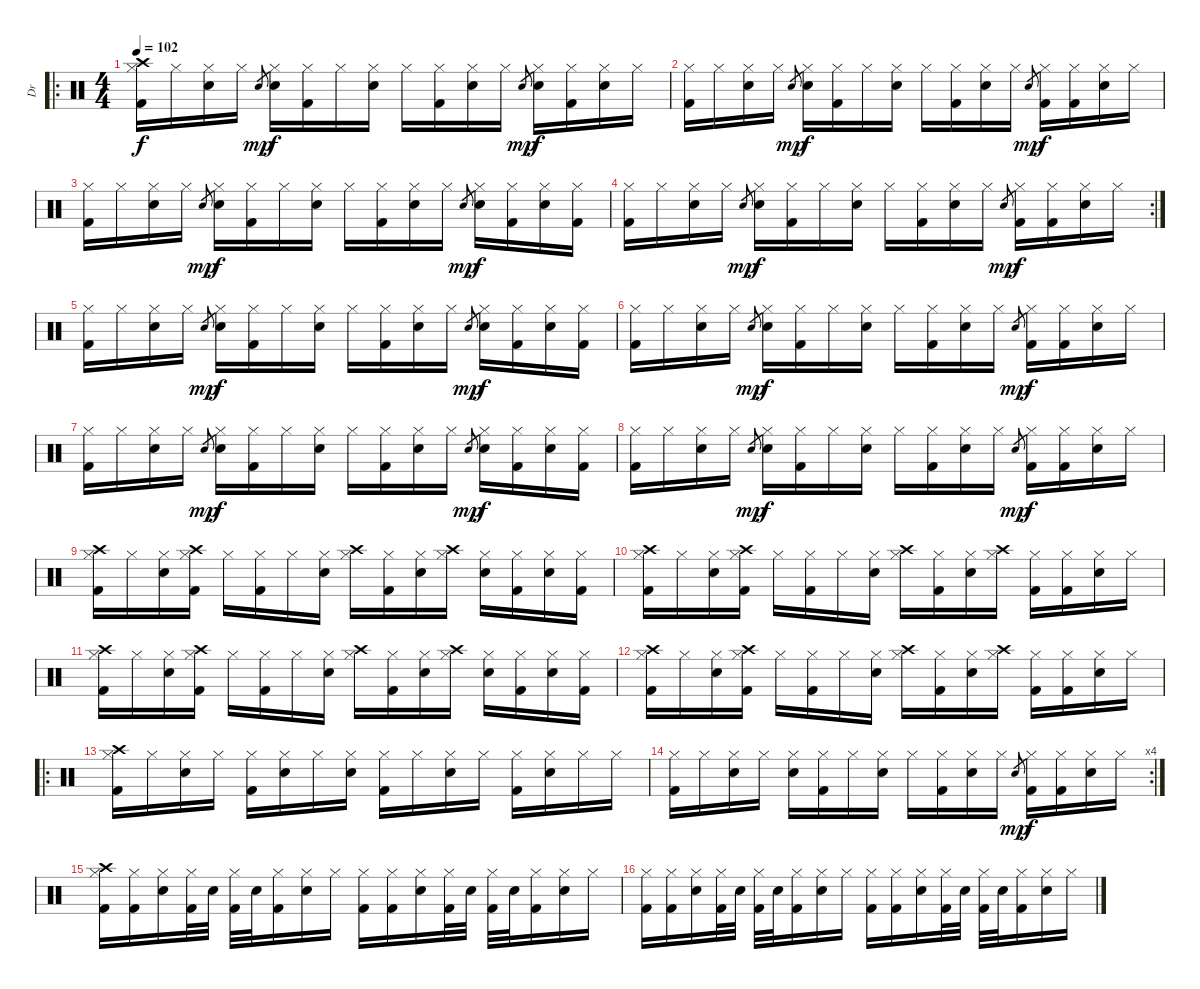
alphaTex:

\track ("Dr" "Dr") {instrument percussion}
\staff {score}
\articulation defaults
\ro
\ts (4 4)
\tempo 102
\clef neutral
\ks c
("Crash high (hit)" "Hi-Hat (closed)" "Kick (hit) 2").16{dy f} "Hi-Hat (closed)".16 ("Hi-Hat (closed)" "Electric Snare (hit)").16 "Hi-Hat (closed)".16 "Electric Snare (hit)".8{gr dy mp} ("Hi-Hat (closed)" "Electric Snare (hit)").16{dy f} ("Hi-Hat (closed)" "Kick (hit) 2").16 "Hi-Hat (closed)".16 ("Hi-Hat (closed)" "Electric Snare (hit)").16 "Hi-Hat (closed)".16 ("Hi-Hat (closed)" "Kick (hit) 2").16 ("Hi-Hat (closed)" "Electric Snare (hit)").16 "Hi-Hat (closed)".16 "Electric Snare (hit)".8{gr dy mp} ("Hi-Hat (closed)" "Electric Snare (hit)").16{dy f} ("Hi-Hat (closed)" "Kick (hit) 2").16 ("Hi-Hat (closed)" "Electric Snare (hit)").16 "Hi-Hat (closed)".16 |
("Hi-Hat (closed)" "Kick (hit) 2").16 "Hi-Hat (closed)".16 ("Hi-Hat (closed)" "Electric Snare (hit)").16 "Hi-Hat (closed)".16 "Electric Snare (hit)".8{gr dy mp} ("Hi-Hat (closed)" "Electric Snare (hit)").16{dy f} ("Hi-Hat (closed)" "Kick (hit) 2").16 "Hi-Hat (closed)".16 ("Hi-Hat (closed)" "Electric Snare (hit)").16 "Hi-Hat (closed)".16 ("Hi-Hat (closed)" "Kick (hit) 2").16 ("Hi-Hat (closed)" "Electric Snare (hit)").16 "Hi-Hat (closed)".16 "Electric Snare (hit)".8{gr dy mp} ("Hi-Hat (closed)" "Kick (hit) 2").16{dy f} ("Hi-Hat (closed)" "Kick (hit) 2").16 ("Hi-Hat (closed)" "Electric Snare (hit)").16 "Hi-Hat (closed)".16 |
("Hi-Hat (closed)" "Kick (hit) 2").16 "Hi-Hat (closed)".16 ("Hi-Hat (closed)" "Electric Snare (hit)").16 "Hi-Hat (closed)".16 "Electric Snare (hit)".8{gr dy mp} ("Hi-Hat (closed)" "Electric Snare (hit)").16{dy f} ("Hi-Hat (closed)" "Kick (hit) 2").16 "Hi-Hat (closed)".16 ("Hi-Hat (closed)" "Electric Snare (hit)").16 "Hi-Hat (closed)".16 ("Hi-Hat (closed)" "Kick (hit) 2").16 ("Hi-Hat (closed)" "Electric Snare (hit)").16 "Hi-Hat (closed)".16 "Electric Snare (hit)".8{gr dy mp} ("Hi-Hat (closed)" "Electric Snare (hit)").16{dy f} ("Hi-Hat (closed)" "Kick (hit) 2").16 ("Hi-Hat (closed)" "Electric Snare (hit)").16 ("Hi-Hat (closed)" "Kick (hit) 2").16 |
\rc 2
("Hi-Hat (closed)" "Kick (hit) 2").16 "Hi-Hat (closed)".16 ("Hi-Hat (closed)" "Electric Snare (hit)").16 "Hi-Hat (closed)".16 "Electric Snare (hit)".8{gr dy mp} ("Hi-Hat (closed)" "Electric Snare (hit)").16{dy f} ("Hi-Hat (closed)" "Kick (hit) 2").16 "Hi-Hat (closed)".16 ("Hi-Hat (closed)" "Electric Snare (hit)").16 "Hi-Hat (closed)".16 ("Hi-Hat (closed)" "Kick (hit) 2").16 ("Hi-Hat (closed)" "Electric Snare (hit)").16 "Hi-Hat (closed)".16 "Electric Snare (hit)".8{gr dy mp} ("Hi-Hat (closed)" "Kick (hit) 2").16{dy f} ("Hi-Hat (closed)" "Kick (hit) 2").16 ("Hi-Hat (closed)" "Electric Snare (hit)").16 "Hi-Hat (closed)".16 |
("Hi-Hat (closed)" "Kick (hit) 2").16 "Hi-Hat (closed)".16 ("Hi-Hat (closed)" "Electric Snare (hit)").16 "Hi-Hat (closed)".16 "Electric Snare (hit)".8{gr dy mp} ("Hi-Hat (closed)" "Electric Snare (hit)").16{dy f} ("Hi-Hat (closed)" "Kick (hit) 2").16 "Hi-Hat (closed)".16 ("Hi-Hat (closed)" "Electric Snare (hit)").16 "Hi-Hat (closed)".16 ("Hi-Hat (closed)" "Kick (hit) 2").16 ("Hi-Hat (closed)" "Electric Snare (hit)").16 "Hi-Hat (closed)".16 "Electric Snare (hit)".8{gr dy mp} ("Hi-Hat (closed)" "Electric Snare (hit)").16{dy f} ("Hi-Hat (closed)" "Kick (hit) 2").16 ("Hi-Hat (closed)" "Electric Snare (hit)").16 ("Hi-Hat (closed)" "Kick (hit) 2").16 |
("Hi-Hat (closed)" "Kick (hit) 2").16 "Hi-Hat (closed)".16 ("Hi-Hat (closed)" "Electric Snare (hit)").16 "Hi-Hat (closed)".16 "Electric Snare (hit)".8{gr dy mp} ("Hi-Hat (closed)" "Electric Snare (hit)").16{dy f} ("Hi-Hat (closed)" "Kick (hit) 2").16 "Hi-Hat (closed)".16 ("Hi-Hat (closed)" "Electric Snare (hit)").16 "Hi-Hat (closed)".16 ("Hi-Hat (closed)" "Kick (hit) 2").16 ("Hi-Hat (closed)" "Electric Snare (hit)").16 "Hi-Hat (closed)".16 "Electric Snare (hit)".8{gr dy mp} ("Hi-Hat (closed)" "Kick (hit) 2").16{dy f} ("Hi-Hat (closed)" "Kick (hit) 2").16 ("Hi-Hat (closed)" "Electric Snare (hit)").16 "Hi-Hat (closed)".16 |
("Hi-Hat (closed)" "Kick (hit) 2").16 "Hi-Hat (closed)".16 ("Hi-Hat (closed)" "Electric Snare (hit)").16 "Hi-Hat (closed)".16 "Electric Snare (hit)".8{gr dy mp} ("Hi-Hat (closed)" "Electric Snare (hit)").16{dy f} ("Hi-Hat (closed)" "Kick (hit) 2").16 "Hi-Hat (closed)".16 ("Hi-Hat (closed)" "Electric Snare (hit)").16 "Hi-Hat (closed)".16 ("Hi-Hat (closed)" "Kick (hit) 2").16 ("Hi-Hat (closed)" "Electric Snare (hit)").16 "Hi-Hat (closed)".16 "Electric Snare (hit)".8{gr dy mp} ("Hi-Hat (closed)" "Electric Snare (hit)").16{dy f} ("Hi-Hat (closed)" "Kick (hit) 2").16 ("Hi-Hat (closed)" "Electric Snare (hit)").16 ("Hi-Hat (closed)" "Kick (hit) 2").16 |
("Hi-Hat (closed)" "Kick (hit) 2").16 "Hi-Hat (closed)".16 ("Hi-Hat (closed)" "Electric Snare (hit)").16 "Hi-Hat (closed)".16 "Electric Snare (hit)".8{gr dy mp} ("Hi-Hat (closed)" "Electric Snare (hit)").16{dy f} ("Hi-Hat (closed)" "Kick (hit) 2").16 "Hi-Hat (closed)".16 ("Hi-Hat (closed)" "Electric Snare (hit)").16 "Hi-Hat (closed)".16 ("Hi-Hat (closed)" "Kick (hit) 2").16 ("Hi-Hat (closed)" "Electric Snare (hit)").16 "Hi-Hat (closed)".16 "Electric Snare (hit)".8{gr dy mp} ("Hi-Hat (closed)" "Kick (hit) 2").16{dy f} ("Hi-Hat (closed)" "Kick (hit) 2").16 ("Hi-Hat (closed)" "Electric Snare (hit)").16 "Hi-Hat (closed)".16 |
("Crash high (hit)" "Hi-Hat (closed)" "Kick (hit) 2").16 "Hi-Hat (closed)".16 ("Hi-Hat (closed)" "Electric Snare (hit)").16 ("Crash high (hit)" "Hi-Hat (closed)" "Kick (hit) 2").16 "Hi-Hat (closed)".16 ("Hi-Hat (closed)" "Kick (hit) 2").16 "Hi-Hat (closed)".16 ("Hi-Hat (closed)" "Electric Snare (hit)").16 ("Crash high (hit)" "Hi-Hat (closed)").16 ("Hi-Hat (closed)" "Kick (hit) 2").16 ("Hi-Hat (closed)" "Electric Snare (hit)").16 ("Crash high (hit)" "Hi-Hat (closed)").16 ("Hi-Hat (closed)" "Electric Snare (hit)").16 ("Hi-Hat (closed)" "Kick (hit) 2").16 ("Hi-Hat (closed)" "Electric Snare (hit)").16 ("Hi-Hat (closed)" "Kick (hit) 2").16 |
("Crash high (hit)" "Hi-Hat (closed)" "Kick (hit) 2").16 "Hi-Hat (closed)".16 ("Hi-Hat (closed)" "Electric Snare (hit)").16 ("Crash high (hit)" "Hi-Hat (closed)" "Kick (hit) 2").16 "Hi-Hat (closed)".16 ("Hi-Hat (closed)" "Kick (hit) 2").16 "Hi-Hat (closed)".16 ("Hi-Hat (closed)" "Electric Snare (hit)").16 ("Crash high (hit)" "Hi-Hat (closed)").16 ("Hi-Hat (closed)" "Kick (hit) 2").16 ("Hi-Hat (closed)" "Electric Snare (hit)").16 ("Crash high (hit)" "Hi-Hat (closed)").16 ("Hi-Hat (closed)" "Kick (hit) 2").16 ("Hi-Hat (closed)" "Kick (hit) 2").16 ("Hi-Hat (closed)" "Electric Snare (hit)").16 "Hi-Hat (closed)".16 |
("Crash high (hit)" "Hi-Hat (closed)" "Kick (hit) 2").16 "Hi-Hat (closed)".16 ("Hi-Hat (closed)" "Electric Snare (hit)").16 ("Crash high (hit)" "Hi-Hat (closed)" "Kick (hit) 2").16 "Hi-Hat (closed)".16 ("Hi-Hat (closed)" "Kick (hit) 2").16 "Hi-Hat (closed)".16 ("Hi-Hat (closed)" "Electric Snare (hit)").16 ("Crash high (hit)" "Hi-Hat (closed)").16 ("Hi-Hat (closed)" "Kick (hit) 2").16 ("Hi-Hat (closed)" "Electric Snare (hit)").16 ("Crash high (hit)" "Hi-Hat (closed)").16 ("Hi-Hat (closed)" "Electric Snare (hit)").16 ("Hi-Hat (closed)" "Kick (hit) 2").16 ("Hi-Hat (closed)" "Electric Snare (hit)").16 ("Hi-Hat (closed)" "Kick (hit) 2").16 |
("Crash high (hit)" "Hi-Hat (closed)" "Kick (hit) 2").16 "Hi-Hat (closed)".16 ("Hi-Hat (closed)" "Electric Snare (hit)").16 ("Crash high (hit)" "Hi-Hat (closed)" "Kick (hit) 2").16 "Hi-Hat (closed)".16 ("Hi-Hat (closed)" "Kick (hit) 2").16 "Hi-Hat (closed)".16 ("Hi-Hat (closed)" "Electric Snare (hit)").16 ("Crash high (hit)" "Hi-Hat (closed)").16 ("Hi-Hat (closed)" "Kick (hit) 2").16 ("Hi-Hat (closed)" "Electric Snare (hit)").16 ("Crash high (hit)" "Hi-Hat (closed)").16 ("Hi-Hat (closed)" "Kick (hit) 2").16 ("Hi-Hat (closed)" "Kick (hit) 2").16 ("Hi-Hat (closed)" "Electric Snare (hit)").16 "Hi-Hat (closed)".16 |
\ro
("Crash high (hit)" "Hi-Hat (closed)" "Kick (hit) 2").16 "Hi-Hat (closed)".16 ("Hi-Hat (closed)" "Electric Snare (hit)").16 "Hi-Hat (closed)".16 ("Hi-Hat (closed)" "Kick (hit) 2").16 ("Hi-Hat (closed)" "Electric Snare (hit)").16 "Hi-Hat (closed)".16 ("Hi-Hat (closed)" "Electric Snare (hit)").16 ("Hi-Hat (closed)" "Kick (hit) 2").16 "Hi-Hat (closed)".16 ("Hi-Hat (closed)" "Electric Snare (hit)").16 "Hi-Hat (closed)".16 ("Hi-Hat (closed)" "Kick (hit) 2").16 ("Hi-Hat (closed)" "Electric Snare (hit)").16 "Hi-Hat (closed)".16 "Hi-Hat (closed)".16 |
\rc 4
("Hi-Hat (closed)" "Kick (hit) 2").16 "Hi-Hat (closed)".16 ("Hi-Hat (closed)" "Electric Snare (hit)").16 "Hi-Hat (closed)".16 ("Hi-Hat (closed)" "Electric Snare (hit)").16 ("Hi-Hat (closed)" "Kick (hit) 2").16 "Hi-Hat (closed)".16 ("Hi-Hat (closed)" "Electric Snare (hit)").16 "Hi-Hat (closed)".16 ("Hi-Hat (closed)" "Kick (hit) 2").16 ("Hi-Hat (closed)" "Electric Snare (hit)").16 "Hi-Hat (closed)".16 "Electric Snare (hit)".8{gr dy mp} ("Hi-Hat (closed)" "Kick (hit) 2").16{dy f} ("Hi-Hat (closed)" "Kick (hit) 2").16 ("Hi-Hat (closed)" "Electric Snare (hit)").16 "Hi-Hat (closed)".16 |
("Crash high (hit)" "Hi-Hat (closed)" "Kick (hit) 2").16 ("Hi-Hat (closed)" "Kick (hit) 2").16 ("Hi-Hat (closed)" "Electric Snare (hit)").16 ("Hi-Hat (closed)" "Kick (hit) 2").32 "Electric Snare (hit)".32 ("Hi-Hat (closed)" "Kick (hit) 2").32 "Electric Snare (hit)".32 ("Hi-Hat (closed)" "Kick (hit) 2").16 ("Hi-Hat (closed)" "Electric Snare (hit)").16 "Hi-Hat (closed)".16 ("Hi-Hat (closed)" "Kick (hit) 2").16 ("Hi-Hat (closed)" "Kick (hit) 2").16 ("Hi-Hat (closed)" "Electric Snare (hit)").16 ("Hi-Hat (closed)" "Kick (hit) 2").32 "Electric Snare (hit)".32 ("Hi-Hat (closed)" "Kick (hit) 2").32 "Electric Snare (hit)".32 ("Hi-Hat (closed)" "Kick (hit) 2").16 ("Hi-Hat (closed)" "Electric Snare (hit)").16 "Hi-Hat (closed)".16 |
("Hi-Hat (closed)" "Kick (hit) 2").16 ("Hi-Hat (closed)" "Kick (hit) 2").16 ("Hi-Hat (closed)" "Electric Snare (hit)").16 ("Hi-Hat (closed)" "Kick (hit) 2").32 "Electric Snare (hit)".32 ("Hi-Hat (closed)" "Kick (hit) 2").32 "Electric Snare (hit)".32 ("Hi-Hat (closed)" "Kick (hit) 2").16 ("Hi-Hat (closed)" "Electric Snare (hit)").16 "Hi-Hat (closed)".16 ("Hi-Hat (closed)" "Kick (hit) 2").16 ("Hi-Hat (closed)" "Kick (hit) 2").16 ("Hi-Hat (closed)" "Electric Snare (hit)").16 ("Hi-Hat (closed)" "Kick (hit) 2").32 "Electric Snare (hit)".32 ("Hi-Hat (closed)" "Kick (hit) 2").32 "Electric Snare (hit)".32 ("Hi-Hat (closed)" "Kick (hit) 2").16 ("Hi-Hat (closed)" "Electric Snare (hit)").16 "Hi-Hat (closed)".16
